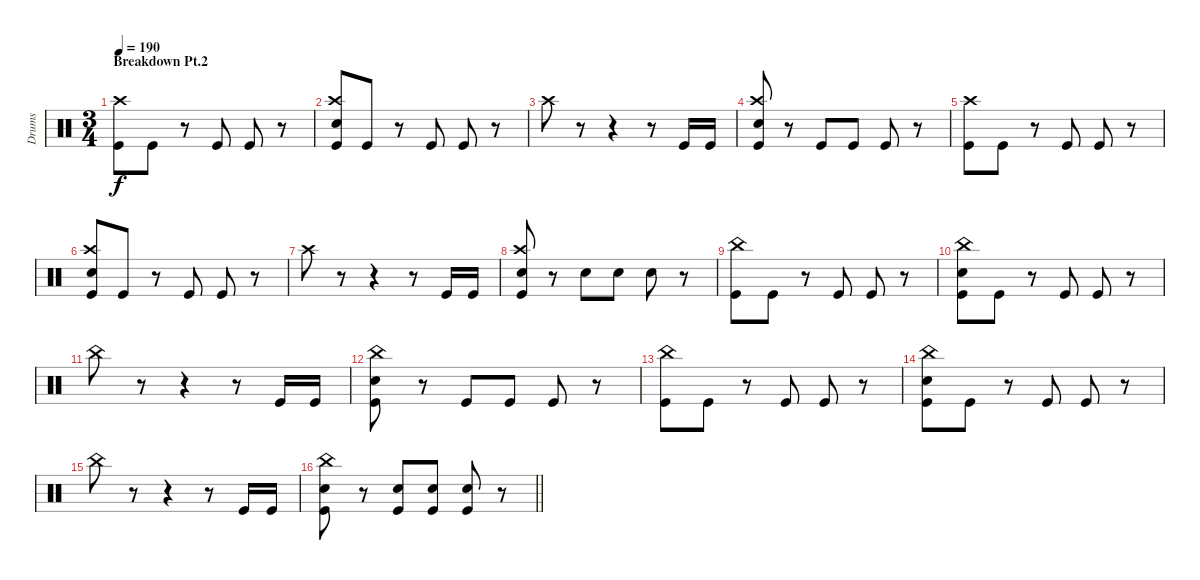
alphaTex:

\track ("Drums" "Drums") {instrument percussion}
\staff {score}
\articulation defaults
\ts (3 4)
\section ("" "Breakdown Pt.2")
\tempo 190
\clef neutral
\ks c
("Kick (hit)" "Crash high (hit)").8{dy f} "Kick (hit)".8 r.8 "Kick (hit)".8 "Kick (hit)".8 r.8 |
("Kick (hit)" "Crash high (hit)" "Snare (hit) 2").8 "Kick (hit)".8 r.8 "Kick (hit)".8 "Kick (hit)".8 r.8 |
"Crash high (hit)".8 r.8 r.4 r.8 "Kick (hit)".16 "Kick (hit)".16 |
("Crash high (hit)" "Snare (hit) 2" "Kick (hit)").8 r.8 "Kick (hit)".8 "Kick (hit)".8 "Kick (hit)".8 r.8 |
("Kick (hit)" "Crash high (hit)").8 "Kick (hit)".8 r.8 "Kick (hit)".8 "Kick (hit)".8 r.8 |
("Kick (hit)" "Crash high (hit)" "Snare (hit) 2").8 "Kick (hit)".8 r.8 "Kick (hit)".8 "Kick (hit)".8 r.8 |
"Crash high (hit)".8 r.8 r.4 r.8 "Kick (hit)".16 "Kick (hit)".16 |
("Crash high (hit)" "Snare (hit) 2" "Kick (hit)").8 r.8 "Snare (hit) 2".8 "Snare (hit) 2".8 "Snare (hit) 2".8 r.8 |
("Kick (hit)" "China (hit)").8 "Kick (hit)".8 r.8 "Kick (hit)".8 "Kick (hit)".8 r.8 |
("Kick (hit)" "Snare (hit) 2" "China (hit)").8 "Kick (hit)".8 r.8 "Kick (hit)".8 "Kick (hit)".8 r.8 |
"China (hit)".8 r.8 r.4 r.8 "Kick (hit)".16 "Kick (hit)".16 |
("Snare (hit) 2" "Kick (hit)" "China (hit)").8 r.8 "Kick (hit)".8 "Kick (hit)".8 "Kick (hit)".8 r.8 |
("Kick (hit)" "China (hit)").8 "Kick (hit)".8 r.8 "Kick (hit)".8 "Kick (hit)".8 r.8 |
("Kick (hit)" "Snare (hit) 2" "China (hit)").8 "Kick (hit)".8 r.8 "Kick (hit)".8 "Kick (hit)".8 r.8 |
"China (hit)".8 r.8 r.4 r.8 "Kick (hit)".16 "Kick (hit)".16 |
\barLineRight lightlight
("Snare (hit) 2" "Kick (hit)" "China (hit)").8 r.8 ("Snare (hit) 2" "Kick (hit)").8 ("Snare (hit) 2" "Kick (hit)").8 ("Snare (hit) 2" "Kick (hit)").8 r.8
